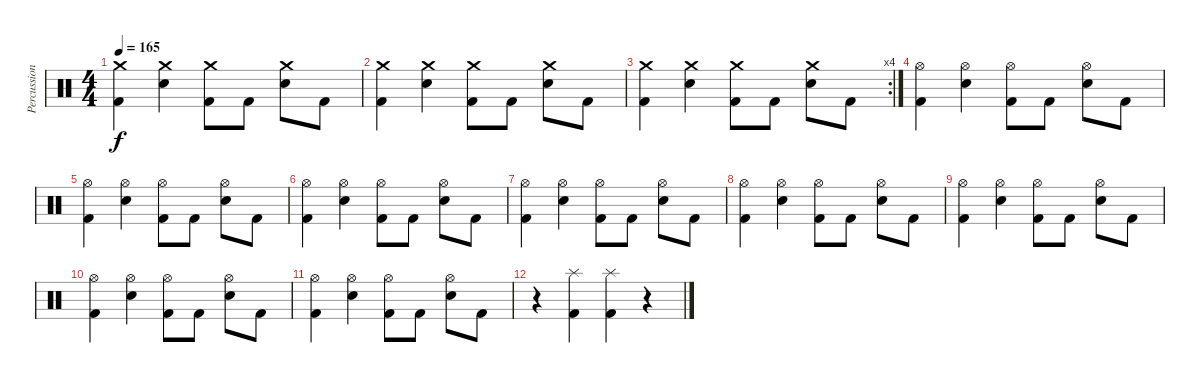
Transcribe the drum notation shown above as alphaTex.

\track ("Percussions" "Percussion") {instrument percussion}
\staff {score}
\articulation defaults
\ts (4 4)
\tempo 165
\clef neutral
\ks c
("Kick (hit) 2" "Crash medium (hit)").4{dy f} ("Snare (hit) 2" "Crash medium (hit)").4 ("Kick (hit) 2" "Crash medium (hit)").8 "Kick (hit) 2".8 ("Snare (hit) 2" "Crash medium (hit)").8 "Kick (hit) 2".8 |
("Kick (hit) 2" "Crash medium (hit)").4 ("Snare (hit) 2" "Crash medium (hit)").4 ("Kick (hit) 2" "Crash medium (hit)").8 "Kick (hit) 2".8 ("Snare (hit) 2" "Crash medium (hit)").8 "Kick (hit) 2".8 |
\rc 4
("Kick (hit) 2" "Crash medium (hit)").4 ("Snare (hit) 2" "Crash medium (hit)").4 ("Kick (hit) 2" "Crash medium (hit)").8 "Kick (hit) 2".8 ("Snare (hit) 2" "Crash medium (hit)").8 "Kick (hit) 2".8 |
("Kick (hit) 2" "Hi-Hat (open)").4 ("Snare (hit) 2" "Hi-Hat (open)").4 ("Kick (hit) 2" "Hi-Hat (open)").8 "Kick (hit) 2".8 ("Snare (hit) 2" "Hi-Hat (open)").8 "Kick (hit) 2".8 |
("Kick (hit) 2" "Hi-Hat (open)").4 ("Snare (hit) 2" "Hi-Hat (open)").4 ("Kick (hit) 2" "Hi-Hat (open)").8 "Kick (hit) 2".8 ("Snare (hit) 2" "Hi-Hat (open)").8 "Kick (hit) 2".8 |
("Kick (hit) 2" "Hi-Hat (open)").4 ("Snare (hit) 2" "Hi-Hat (open)").4 ("Kick (hit) 2" "Hi-Hat (open)").8 "Kick (hit) 2".8 ("Snare (hit) 2" "Hi-Hat (open)").8 "Kick (hit) 2".8 |
("Kick (hit) 2" "Hi-Hat (open)").4 ("Snare (hit) 2" "Hi-Hat (open)").4 ("Kick (hit) 2" "Hi-Hat (open)").8 "Kick (hit) 2".8 ("Snare (hit) 2" "Hi-Hat (open)").8 "Kick (hit) 2".8 |
("Kick (hit) 2" "Hi-Hat (open)").4 ("Snare (hit) 2" "Hi-Hat (open)").4 ("Kick (hit) 2" "Hi-Hat (open)").8 "Kick (hit) 2".8 ("Snare (hit) 2" "Hi-Hat (open)").8 "Kick (hit) 2".8 |
("Kick (hit) 2" "Hi-Hat (open)").4 ("Snare (hit) 2" "Hi-Hat (open)").4 ("Kick (hit) 2" "Hi-Hat (open)").8 "Kick (hit) 2".8 ("Snare (hit) 2" "Hi-Hat (open)").8 "Kick (hit) 2".8 |
("Kick (hit) 2" "Hi-Hat (open)").4 ("Snare (hit) 2" "Hi-Hat (open)").4 ("Kick (hit) 2" "Hi-Hat (open)").8 "Kick (hit) 2".8 ("Snare (hit) 2" "Hi-Hat (open)").8 "Kick (hit) 2".8 |
("Kick (hit) 2" "Hi-Hat (open)").4 ("Snare (hit) 2" "Hi-Hat (open)").4 ("Kick (hit) 2" "Hi-Hat (open)").8 "Kick (hit) 2".8 ("Snare (hit) 2" "Hi-Hat (open)").8 "Kick (hit) 2".8 |
r.4 ("Kick (hit) 2" "Splash (hit)").4 ("Kick (hit) 2" "Splash (hit)").4 r.4
